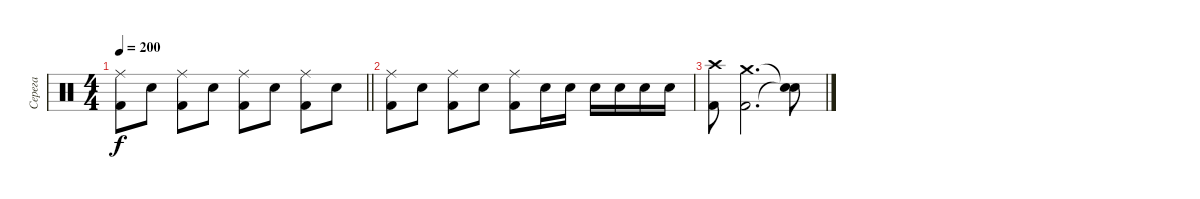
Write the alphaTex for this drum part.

\track ("Серега" "Серега") {instrument percussion}
\staff {score}
\articulation defaults
\ts (4 4)
\tempo 200
\clef neutral
\barLineRight lightlight
\ks c
("Ride (middle)" "Kick (hit) 2").8{dy f} "Electric Snare (hit)".8 ("Ride (middle)" "Kick (hit) 2").8 "Electric Snare (hit)".8 ("Ride (middle)" "Kick (hit) 2").8 "Electric Snare (hit)".8 ("Ride (middle)" "Kick (hit) 2").8 "Electric Snare (hit)".8 |
\section ("" "")
("Ride (middle)" "Kick (hit) 2").8 "Electric Snare (hit)".8 ("Ride (middle)" "Kick (hit) 2").8 "Electric Snare (hit)".8 ("Ride (middle)" "Kick (hit) 2").8 "Electric Snare (hit)".16 "Electric Snare (hit)".16 "Electric Snare (hit)".16 "Electric Snare (hit)".16 "Electric Snare (hit)".16 "Electric Snare (hit)".16 |
("Crash high (hit)" "Kick (hit) 2").8 ("Crash medium (hit)" "Kick (hit) 2").2{d} ("Snare (hit)"{t} "Snare (hit)"{t}).8
